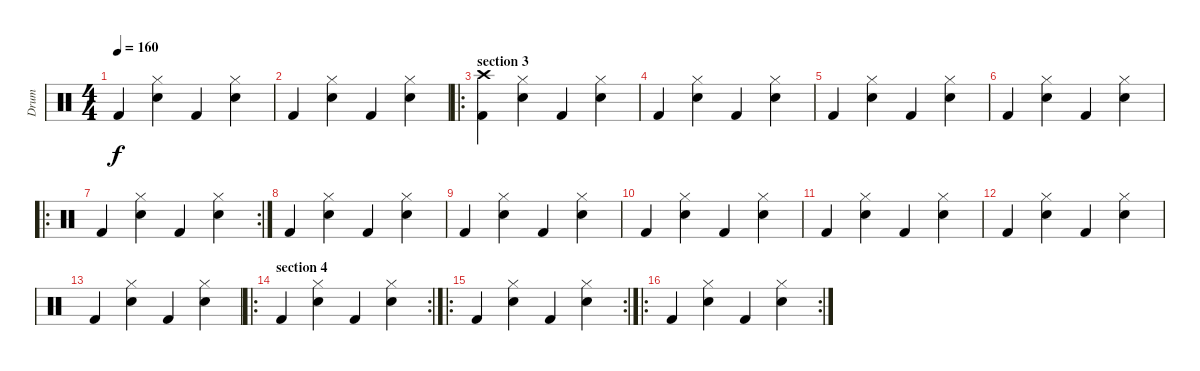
\track ("Drum" "Drum") {instrument percussion}
\staff {score}
\articulation defaults
\ts (4 4)
\tempo 160
\clef neutral
\ks c "Kick (hit) 2".4{dy f}
("Snare (hit) 2" "Hi-Hat (closed)").4 "Kick (hit) 2".4 ("Snare (hit) 2" "Hi-Hat (closed)").4 |
"Kick (hit) 2".4 ("Snare (hit) 2" "Hi-Hat (closed)").4 "Kick (hit) 2".4 ("Snare (hit) 2" "Hi-Hat (closed)").4 |
\ro
\section ("" "section 3")
("Kick (hit) 2" "Crash high (hit)").4 ("Snare (hit) 2" "Hi-Hat (closed)").4 "Kick (hit) 2".4 ("Snare (hit) 2" "Hi-Hat (closed)").4 |
"Kick (hit) 2".4 ("Snare (hit) 2" "Hi-Hat (closed)").4 "Kick (hit) 2".4 ("Snare (hit) 2" "Hi-Hat (closed)").4 |
"Kick (hit) 2".4 ("Snare (hit) 2" "Hi-Hat (closed)").4 "Kick (hit) 2".4 ("Snare (hit) 2" "Hi-Hat (closed)").4 |
"Kick (hit) 2".4 ("Snare (hit) 2" "Hi-Hat (closed)").4 "Kick (hit) 2".4 ("Snare (hit) 2" "Hi-Hat (closed)").4 |
\ro
\rc 2 "Kick (hit) 2".4
("Snare (hit) 2" "Hi-Hat (closed)").4 "Kick (hit) 2".4 ("Snare (hit) 2" "Hi-Hat (closed)").4 |
"Kick (hit) 2".4 ("Snare (hit) 2" "Hi-Hat (closed)").4 "Kick (hit) 2".4 ("Snare (hit) 2" "Hi-Hat (closed)").4 |
"Kick (hit) 2".4 ("Snare (hit) 2" "Hi-Hat (closed)").4 "Kick (hit) 2".4 ("Snare (hit) 2" "Hi-Hat (closed)").4 |
"Kick (hit) 2".4 ("Snare (hit) 2" "Hi-Hat (closed)").4 "Kick (hit) 2".4 ("Snare (hit) 2" "Hi-Hat (closed)").4 |
"Kick (hit) 2".4 ("Snare (hit) 2" "Hi-Hat (closed)").4 "Kick (hit) 2".4 ("Snare (hit) 2" "Hi-Hat (closed)").4 |
"Kick (hit) 2".4 ("Snare (hit) 2" "Hi-Hat (closed)").4 "Kick (hit) 2".4 ("Snare (hit) 2" "Hi-Hat (closed)").4 |
"Kick (hit) 2".4 ("Snare (hit) 2" "Hi-Hat (closed)").4 "Kick (hit) 2".4 ("Snare (hit) 2" "Hi-Hat (closed)").4 |
\ro
\rc 2
\section ("" "section 4")
"Kick (hit) 2".4 ("Snare (hit) 2" "Hi-Hat (closed)").4 "Kick (hit) 2".4 ("Snare (hit) 2" "Hi-Hat (closed)").4 |
\ro
\rc 2 "Kick (hit) 2".4
("Snare (hit) 2" "Hi-Hat (closed)").4 "Kick (hit) 2".4 ("Snare (hit) 2" "Hi-Hat (closed)").4 |
\ro
\rc 2 "Kick (hit) 2".4
("Snare (hit) 2" "Hi-Hat (closed)").4 "Kick (hit) 2".4 ("Snare (hit) 2" "Hi-Hat (closed)").4
